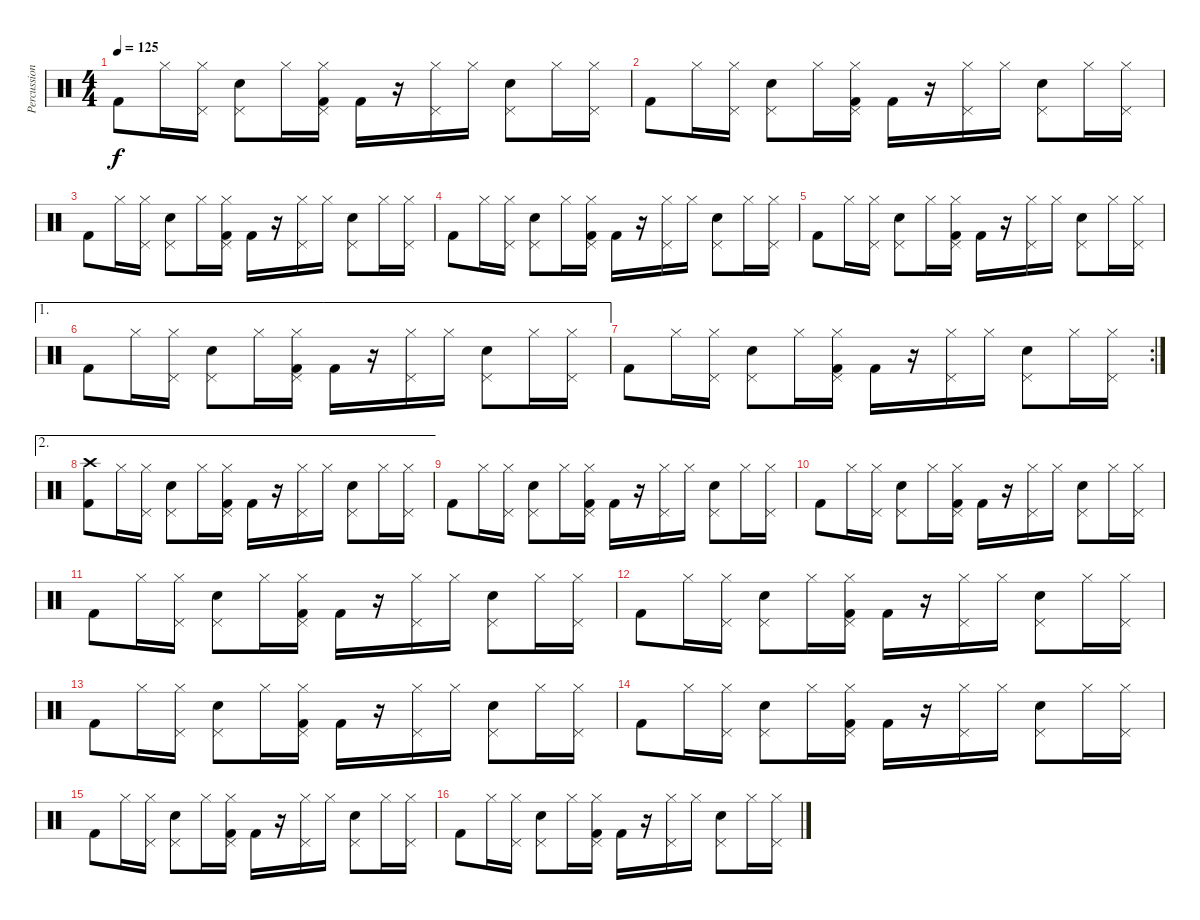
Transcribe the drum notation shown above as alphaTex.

\track ("Percussions" "Percussion") {instrument percussion}
\staff {score}
\articulation defaults
\ts (4 4)
\tempo 125
\clef neutral
\ks c "Kick (hit) 2".8{dy f} "Hi-Hat (closed)".16
("Pedal Hi-Hat (hit)" "Hi-Hat (closed)").16 ("Pedal Hi-Hat (hit)" "Electric Snare (hit)").8 "Hi-Hat (closed)".16 ("Pedal Hi-Hat (hit)" "Hi-Hat (closed)" "Kick (hit) 2").16 "Kick (hit) 2".16 r.16 ("Pedal Hi-Hat (hit)" "Hi-Hat (closed)").16 "Hi-Hat (closed)".16 ("Pedal Hi-Hat (hit)" "Electric Snare (hit)").8 "Hi-Hat (closed)".16 ("Pedal Hi-Hat (hit)" "Hi-Hat (closed)").16 |
"Kick (hit) 2".8 "Hi-Hat (closed)".16 ("Pedal Hi-Hat (hit)" "Hi-Hat (closed)").16 ("Pedal Hi-Hat (hit)" "Electric Snare (hit)").8 "Hi-Hat (closed)".16 ("Pedal Hi-Hat (hit)" "Hi-Hat (closed)" "Kick (hit) 2").16 "Kick (hit) 2".16 r.16 ("Pedal Hi-Hat (hit)" "Hi-Hat (closed)").16 "Hi-Hat (closed)".16 ("Pedal Hi-Hat (hit)" "Electric Snare (hit)").8 "Hi-Hat (closed)".16 ("Pedal Hi-Hat (hit)" "Hi-Hat (closed)").16 |
"Kick (hit) 2".8 "Hi-Hat (closed)".16 ("Pedal Hi-Hat (hit)" "Hi-Hat (closed)").16 ("Pedal Hi-Hat (hit)" "Electric Snare (hit)").8 "Hi-Hat (closed)".16 ("Pedal Hi-Hat (hit)" "Hi-Hat (closed)" "Kick (hit) 2").16 "Kick (hit) 2".16 r.16 ("Pedal Hi-Hat (hit)" "Hi-Hat (closed)").16 "Hi-Hat (closed)".16 ("Pedal Hi-Hat (hit)" "Electric Snare (hit)").8 "Hi-Hat (closed)".16 ("Pedal Hi-Hat (hit)" "Hi-Hat (closed)").16 |
"Kick (hit) 2".8 "Hi-Hat (closed)".16 ("Pedal Hi-Hat (hit)" "Hi-Hat (closed)").16 ("Pedal Hi-Hat (hit)" "Electric Snare (hit)").8 "Hi-Hat (closed)".16 ("Pedal Hi-Hat (hit)" "Hi-Hat (closed)" "Kick (hit) 2").16 "Kick (hit) 2".16 r.16 ("Pedal Hi-Hat (hit)" "Hi-Hat (closed)").16 "Hi-Hat (closed)".16 ("Pedal Hi-Hat (hit)" "Electric Snare (hit)").8 "Hi-Hat (closed)".16 ("Pedal Hi-Hat (hit)" "Hi-Hat (closed)").16 |
"Kick (hit) 2".8 "Hi-Hat (closed)".16 ("Pedal Hi-Hat (hit)" "Hi-Hat (closed)").16 ("Pedal Hi-Hat (hit)" "Electric Snare (hit)").8 "Hi-Hat (closed)".16 ("Pedal Hi-Hat (hit)" "Hi-Hat (closed)" "Kick (hit) 2").16 "Kick (hit) 2".16 r.16 ("Pedal Hi-Hat (hit)" "Hi-Hat (closed)").16 "Hi-Hat (closed)".16 ("Pedal Hi-Hat (hit)" "Electric Snare (hit)").8 "Hi-Hat (closed)".16 ("Pedal Hi-Hat (hit)" "Hi-Hat (closed)").16 |
\ae 1 "Kick (hit) 2".8 "Hi-Hat (closed)".16
("Pedal Hi-Hat (hit)" "Hi-Hat (closed)").16 ("Pedal Hi-Hat (hit)" "Electric Snare (hit)").8 "Hi-Hat (closed)".16 ("Pedal Hi-Hat (hit)" "Hi-Hat (closed)" "Kick (hit) 2").16 "Kick (hit) 2".16 r.16 ("Pedal Hi-Hat (hit)" "Hi-Hat (closed)").16 "Hi-Hat (closed)".16 ("Pedal Hi-Hat (hit)" "Electric Snare (hit)").8 "Hi-Hat (closed)".16 ("Pedal Hi-Hat (hit)" "Hi-Hat (closed)").16 |
\rc 2 "Kick (hit) 2".8 "Hi-Hat (closed)".16
("Pedal Hi-Hat (hit)" "Hi-Hat (closed)").16 ("Pedal Hi-Hat (hit)" "Electric Snare (hit)").8 "Hi-Hat (closed)".16 ("Pedal Hi-Hat (hit)" "Hi-Hat (closed)" "Kick (hit) 2").16 "Kick (hit) 2".16 r.16 ("Pedal Hi-Hat (hit)" "Hi-Hat (closed)").16 "Hi-Hat (closed)".16 ("Pedal Hi-Hat (hit)" "Electric Snare (hit)").8 "Hi-Hat (closed)".16 ("Pedal Hi-Hat (hit)" "Hi-Hat (closed)").16 |
\ae 2
("Crash high (hit)" "Kick (hit) 2").8 "Hi-Hat (closed)".16 ("Pedal Hi-Hat (hit)" "Hi-Hat (closed)").16 ("Pedal Hi-Hat (hit)" "Electric Snare (hit)").8 "Hi-Hat (closed)".16 ("Pedal Hi-Hat (hit)" "Hi-Hat (closed)" "Kick (hit) 2").16 "Kick (hit) 2".16 r.16 ("Pedal Hi-Hat (hit)" "Hi-Hat (closed)").16 "Hi-Hat (closed)".16 ("Pedal Hi-Hat (hit)" "Electric Snare (hit)").8 "Hi-Hat (closed)".16 ("Pedal Hi-Hat (hit)" "Hi-Hat (closed)").16 |
"Kick (hit) 2".8 "Hi-Hat (closed)".16 ("Pedal Hi-Hat (hit)" "Hi-Hat (closed)").16 ("Pedal Hi-Hat (hit)" "Electric Snare (hit)").8 "Hi-Hat (closed)".16 ("Pedal Hi-Hat (hit)" "Hi-Hat (closed)" "Kick (hit) 2").16 "Kick (hit) 2".16 r.16 ("Pedal Hi-Hat (hit)" "Hi-Hat (closed)").16 "Hi-Hat (closed)".16 ("Pedal Hi-Hat (hit)" "Electric Snare (hit)").8 "Hi-Hat (closed)".16 ("Pedal Hi-Hat (hit)" "Hi-Hat (closed)").16 |
"Kick (hit) 2".8{volume 15} "Hi-Hat (closed)".16 ("Pedal Hi-Hat (hit)" "Hi-Hat (closed)").16 ("Pedal Hi-Hat (hit)" "Electric Snare (hit)").8 "Hi-Hat (closed)".16 ("Pedal Hi-Hat (hit)" "Hi-Hat (closed)" "Kick (hit) 2").16 "Kick (hit) 2".16 r.16 ("Pedal Hi-Hat (hit)" "Hi-Hat (closed)").16 "Hi-Hat (closed)".16 ("Pedal Hi-Hat (hit)" "Electric Snare (hit)").8 "Hi-Hat (closed)".16 ("Pedal Hi-Hat (hit)" "Hi-Hat (closed)").16 |
"Kick (hit) 2".8{volume 14} "Hi-Hat (closed)".16 ("Pedal Hi-Hat (hit)" "Hi-Hat (closed)").16 ("Pedal Hi-Hat (hit)" "Electric Snare (hit)").8 "Hi-Hat (closed)".16 ("Pedal Hi-Hat (hit)" "Hi-Hat (closed)" "Kick (hit) 2").16 "Kick (hit) 2".16 r.16 ("Pedal Hi-Hat (hit)" "Hi-Hat (closed)").16 "Hi-Hat (closed)".16 ("Pedal Hi-Hat (hit)" "Electric Snare (hit)").8 "Hi-Hat (closed)".16 ("Pedal Hi-Hat (hit)" "Hi-Hat (closed)").16 |
"Kick (hit) 2".8{volume 13} "Hi-Hat (closed)".16 ("Pedal Hi-Hat (hit)" "Hi-Hat (closed)").16 ("Pedal Hi-Hat (hit)" "Electric Snare (hit)").8 "Hi-Hat (closed)".16 ("Pedal Hi-Hat (hit)" "Hi-Hat (closed)" "Kick (hit) 2").16 "Kick (hit) 2".16 r.16 ("Pedal Hi-Hat (hit)" "Hi-Hat (closed)").16 "Hi-Hat (closed)".16 ("Pedal Hi-Hat (hit)" "Electric Snare (hit)").8 "Hi-Hat (closed)".16 ("Pedal Hi-Hat (hit)" "Hi-Hat (closed)").16 |
"Kick (hit) 2".8{volume 12} "Hi-Hat (closed)".16 ("Pedal Hi-Hat (hit)" "Hi-Hat (closed)").16 ("Pedal Hi-Hat (hit)" "Electric Snare (hit)").8 "Hi-Hat (closed)".16 ("Pedal Hi-Hat (hit)" "Hi-Hat (closed)" "Kick (hit) 2").16 "Kick (hit) 2".16 r.16 ("Pedal Hi-Hat (hit)" "Hi-Hat (closed)").16 "Hi-Hat (closed)".16 ("Pedal Hi-Hat (hit)" "Electric Snare (hit)").8 "Hi-Hat (closed)".16 ("Pedal Hi-Hat (hit)" "Hi-Hat (closed)").16 |
"Kick (hit) 2".8{volume 11} "Hi-Hat (closed)".16 ("Pedal Hi-Hat (hit)" "Hi-Hat (closed)").16 ("Pedal Hi-Hat (hit)" "Electric Snare (hit)").8 "Hi-Hat (closed)".16 ("Pedal Hi-Hat (hit)" "Hi-Hat (closed)" "Kick (hit) 2").16 "Kick (hit) 2".16{volume 10} r.16 ("Pedal Hi-Hat (hit)" "Hi-Hat (closed)").16 "Hi-Hat (closed)".16 ("Pedal Hi-Hat (hit)" "Electric Snare (hit)").8 "Hi-Hat (closed)".16 ("Pedal Hi-Hat (hit)" "Hi-Hat (closed)").16 |
"Kick (hit) 2".8{volume 9} "Hi-Hat (closed)".16 ("Pedal Hi-Hat (hit)" "Hi-Hat (closed)").16 ("Pedal Hi-Hat (hit)" "Electric Snare (hit)").8 "Hi-Hat (closed)".16 ("Pedal Hi-Hat (hit)" "Hi-Hat (closed)" "Kick (hit) 2").16 "Kick (hit) 2".16{volume 8} r.16 ("Pedal Hi-Hat (hit)" "Hi-Hat (closed)").16 "Hi-Hat (closed)".16 ("Pedal Hi-Hat (hit)" "Electric Snare (hit)").8 "Hi-Hat (closed)".16 ("Pedal Hi-Hat (hit)" "Hi-Hat (closed)").16 |
"Kick (hit) 2".8{volume 0} "Hi-Hat (closed)".16 ("Pedal Hi-Hat (hit)" "Hi-Hat (closed)").16 ("Pedal Hi-Hat (hit)" "Electric Snare (hit)").8 "Hi-Hat (closed)".16 ("Pedal Hi-Hat (hit)" "Hi-Hat (closed)" "Kick (hit) 2").16 "Kick (hit) 2".16 r.16 ("Pedal Hi-Hat (hit)" "Hi-Hat (closed)").16 "Hi-Hat (closed)".16 ("Pedal Hi-Hat (hit)" "Electric Snare (hit)").8 "Hi-Hat (closed)".16 ("Pedal Hi-Hat (hit)" "Hi-Hat (closed)").16
